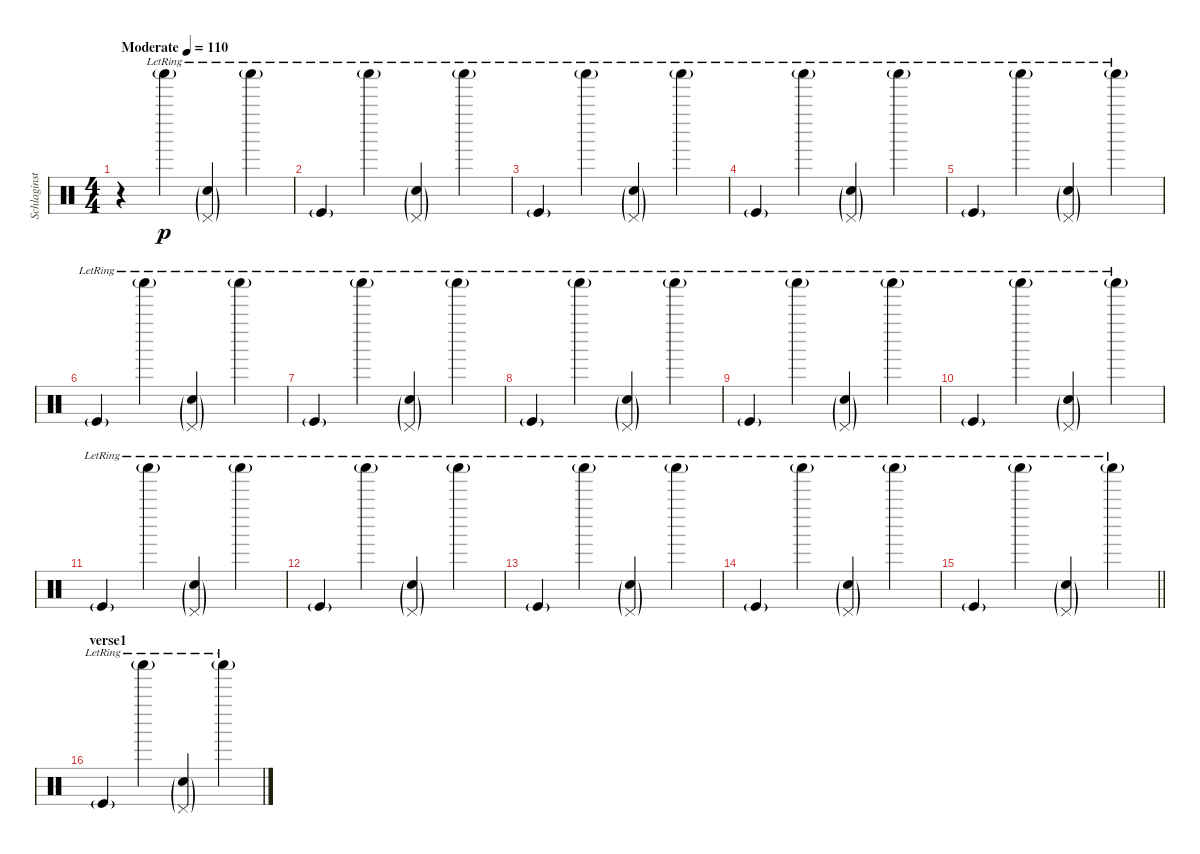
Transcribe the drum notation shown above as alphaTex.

\track ("Schlaginstrumente - Auswahl" "Schlaginst") {instrument percussion}
\staff {score}
\articulation defaults
\ts (4 4)
\tempo (110 "Moderate")
\clef neutral
\ks c
r.4{dy p} "Shaker (hit)"{g lr}.4 ("Snare (hit) 2"{g lr} "Pedal Hi-Hat (hit)"{g lr}).4 "Shaker (hit)"{g lr}.4 |
"Kick (hit)"{g lr}.4 "Shaker (hit)"{g lr}.4 ("Snare (hit) 2"{g lr} "Pedal Hi-Hat (hit)"{g lr}).4 "Shaker (hit)"{g lr}.4 |
"Kick (hit)"{g lr}.4 "Shaker (hit)"{g lr}.4 ("Snare (hit) 2"{g lr} "Pedal Hi-Hat (hit)"{g lr}).4 "Shaker (hit)"{g lr}.4 |
"Kick (hit)"{g lr}.4 "Shaker (hit)"{g lr}.4 ("Snare (hit) 2"{g lr} "Pedal Hi-Hat (hit)"{g lr}).4 "Shaker (hit)"{g lr}.4 |
"Kick (hit)"{g lr}.4 "Shaker (hit)"{g lr}.4 ("Snare (hit) 2"{g lr} "Pedal Hi-Hat (hit)"{g lr}).4 "Shaker (hit)"{g lr}.4 |
"Kick (hit)"{g lr}.4 "Shaker (hit)"{g lr}.4 ("Snare (hit) 2"{g lr} "Pedal Hi-Hat (hit)"{g lr}).4 "Shaker (hit)"{g lr}.4 |
"Kick (hit)"{g lr}.4 "Shaker (hit)"{g lr}.4 ("Snare (hit) 2"{g lr} "Pedal Hi-Hat (hit)"{g lr}).4 "Shaker (hit)"{g lr}.4 |
"Kick (hit)"{g lr}.4 "Shaker (hit)"{g lr}.4 ("Snare (hit) 2"{g lr} "Pedal Hi-Hat (hit)"{g lr}).4 "Shaker (hit)"{g lr}.4 |
"Kick (hit)"{g lr}.4 "Shaker (hit)"{g lr}.4 ("Snare (hit) 2"{g lr} "Pedal Hi-Hat (hit)"{g lr}).4 "Shaker (hit)"{g lr}.4 |
"Kick (hit)"{g lr}.4 "Shaker (hit)"{g lr}.4 ("Snare (hit) 2"{g lr} "Pedal Hi-Hat (hit)"{g lr}).4 "Shaker (hit)"{g lr}.4 |
"Kick (hit)"{g lr}.4 "Shaker (hit)"{g lr}.4 ("Snare (hit) 2"{g lr} "Pedal Hi-Hat (hit)"{g lr}).4 "Shaker (hit)"{g lr}.4 |
"Kick (hit)"{g lr}.4 "Shaker (hit)"{g lr}.4 ("Snare (hit) 2"{g lr} "Pedal Hi-Hat (hit)"{g lr}).4 "Shaker (hit)"{g lr}.4 |
"Kick (hit)"{g lr}.4 "Shaker (hit)"{g lr}.4 ("Snare (hit) 2"{g lr} "Pedal Hi-Hat (hit)"{g lr}).4 "Shaker (hit)"{g lr}.4 |
"Kick (hit)"{g lr}.4 "Shaker (hit)"{g lr}.4 ("Snare (hit) 2"{g lr} "Pedal Hi-Hat (hit)"{g lr}).4 "Shaker (hit)"{g lr}.4 |
\barLineRight lightlight "Kick (hit)"{g lr}.4 "Shaker (hit)"{g lr}.4
("Snare (hit) 2"{g lr} "Pedal Hi-Hat (hit)"{g lr}).4 "Shaker (hit)"{g lr}.4 |
\section ("" "verse1")
"Kick (hit)"{g lr}.4 "Shaker (hit)"{g lr}.4 ("Snare (hit) 2"{g lr} "Pedal Hi-Hat (hit)"{g lr}).4 "Shaker (hit)"{g lr}.4
